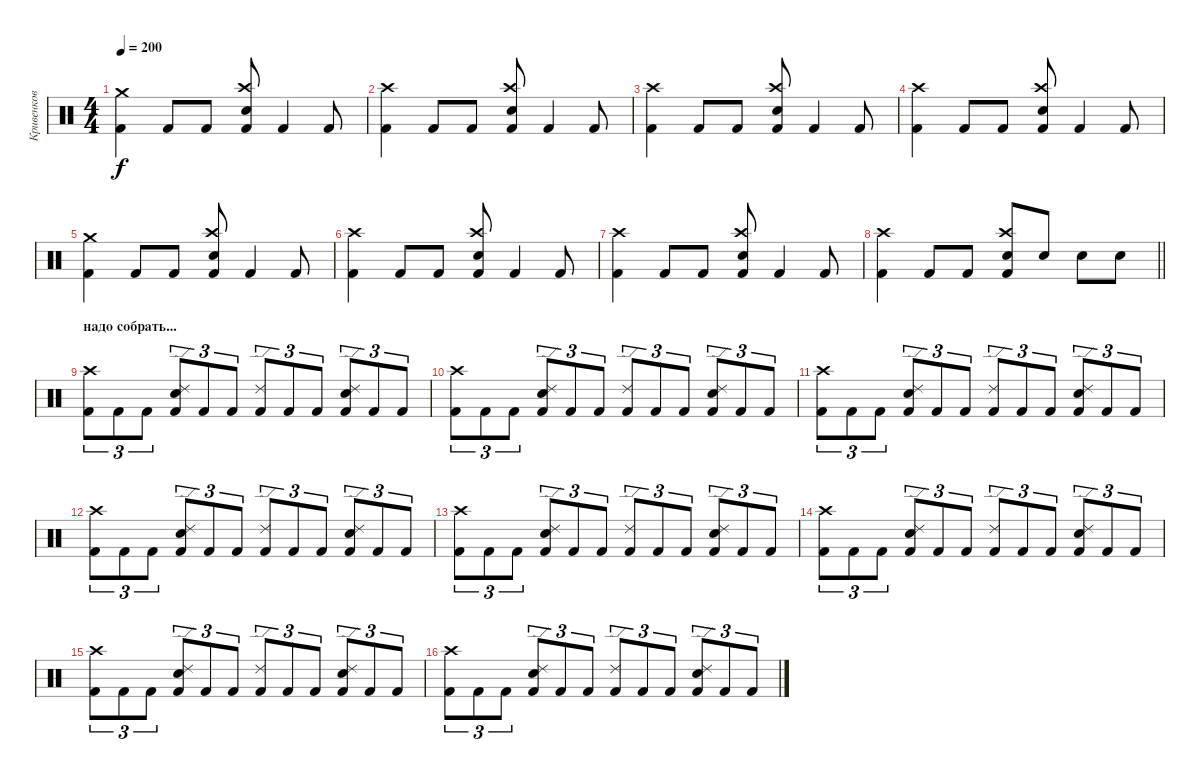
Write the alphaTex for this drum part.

\track ("Кривенков" "Кривенков") {instrument percussion}
\staff {score}
\articulation defaults
\ts (4 4)
\tempo 200
\clef neutral
\ks c
("Crash medium (hit)" "Kick (hit) 2").4{dy f} "Kick (hit) 2".8 "Kick (hit) 2".8 ("Crash high (hit)" "Electric Snare (hit)" "Kick (hit) 2").8 "Kick (hit) 2".4 "Kick (hit) 2".8 |
("Crash high (hit)" "Kick (hit) 2").4 "Kick (hit) 2".8 "Kick (hit) 2".8 ("Crash high (hit)" "Electric Snare (hit)" "Kick (hit) 2").8 "Kick (hit) 2".4 "Kick (hit) 2".8 |
("Crash high (hit)" "Kick (hit) 2").4 "Kick (hit) 2".8 "Kick (hit) 2".8 ("Crash high (hit)" "Electric Snare (hit)" "Kick (hit) 2").8 "Kick (hit) 2".4 "Kick (hit) 2".8 |
("Crash high (hit)" "Kick (hit) 2").4 "Kick (hit) 2".8 "Kick (hit) 2".8 ("Crash high (hit)" "Electric Snare (hit)" "Kick (hit) 2").8 "Kick (hit) 2".4 "Kick (hit) 2".8 |
("Crash medium (hit)" "Kick (hit) 2").4 "Kick (hit) 2".8 "Kick (hit) 2".8 ("Crash high (hit)" "Electric Snare (hit)" "Kick (hit) 2").8 "Kick (hit) 2".4 "Kick (hit) 2".8 |
("Crash high (hit)" "Kick (hit) 2").4 "Kick (hit) 2".8 "Kick (hit) 2".8 ("Crash high (hit)" "Electric Snare (hit)" "Kick (hit) 2").8 "Kick (hit) 2".4 "Kick (hit) 2".8 |
("Crash high (hit)" "Kick (hit) 2").4 "Kick (hit) 2".8 "Kick (hit) 2".8 ("Crash high (hit)" "Electric Snare (hit)" "Kick (hit) 2").8 "Kick (hit) 2".4 "Kick (hit) 2".8 |
\barLineRight lightlight
("Crash high (hit)" "Kick (hit) 2").4 "Kick (hit) 2".8 "Kick (hit) 2".8 ("Crash high (hit)" "Electric Snare (hit)" "Kick (hit) 2").8 "Electric Snare (hit)".8 "Electric Snare (hit)".8 "Electric Snare (hit)".8 |
\section ("" "надо собрать...")
("Crash high (hit)" "Kick (hit) 2").8{tu (3 2)} "Kick (hit) 2".8{tu (3 2)} "Kick (hit) 2".8{tu (3 2)} ("Ride (edge) 2" "Electric Snare (hit)" "Kick (hit) 2").8{tu (3 2)} "Kick (hit) 2".8{tu (3 2)} "Kick (hit) 2".8{tu (3 2)} ("Ride (edge) 2" "Kick (hit) 2").8{tu (3 2)} "Kick (hit) 2".8{tu (3 2)} "Kick (hit) 2".8{tu (3 2)} ("Ride (edge) 2" "Electric Snare (hit)" "Kick (hit) 2").8{tu (3 2)} "Kick (hit) 2".8{tu (3 2)} "Kick (hit) 2".8{tu (3 2)} |
("Crash high (hit)" "Kick (hit) 2").8{tu (3 2)} "Kick (hit) 2".8{tu (3 2)} "Kick (hit) 2".8{tu (3 2)} ("Ride (edge) 2" "Electric Snare (hit)" "Kick (hit) 2").8{tu (3 2)} "Kick (hit) 2".8{tu (3 2)} "Kick (hit) 2".8{tu (3 2)} ("Ride (edge) 2" "Kick (hit) 2").8{tu (3 2)} "Kick (hit) 2".8{tu (3 2)} "Kick (hit) 2".8{tu (3 2)} ("Ride (edge) 2" "Electric Snare (hit)" "Kick (hit) 2").8{tu (3 2)} "Kick (hit) 2".8{tu (3 2)} "Kick (hit) 2".8{tu (3 2)} |
("Crash high (hit)" "Kick (hit) 2").8{tu (3 2)} "Kick (hit) 2".8{tu (3 2)} "Kick (hit) 2".8{tu (3 2)} ("Ride (edge) 2" "Electric Snare (hit)" "Kick (hit) 2").8{tu (3 2)} "Kick (hit) 2".8{tu (3 2)} "Kick (hit) 2".8{tu (3 2)} ("Ride (edge) 2" "Kick (hit) 2").8{tu (3 2)} "Kick (hit) 2".8{tu (3 2)} "Kick (hit) 2".8{tu (3 2)} ("Ride (edge) 2" "Electric Snare (hit)" "Kick (hit) 2").8{tu (3 2)} "Kick (hit) 2".8{tu (3 2)} "Kick (hit) 2".8{tu (3 2)} |
("Crash high (hit)" "Kick (hit) 2").8{tu (3 2)} "Kick (hit) 2".8{tu (3 2)} "Kick (hit) 2".8{tu (3 2)} ("Ride (edge) 2" "Electric Snare (hit)" "Kick (hit) 2").8{tu (3 2)} "Kick (hit) 2".8{tu (3 2)} "Kick (hit) 2".8{tu (3 2)} ("Ride (edge) 2" "Kick (hit) 2").8{tu (3 2)} "Kick (hit) 2".8{tu (3 2)} "Kick (hit) 2".8{tu (3 2)} ("Ride (edge) 2" "Electric Snare (hit)" "Kick (hit) 2").8{tu (3 2)} "Kick (hit) 2".8{tu (3 2)} "Kick (hit) 2".8{tu (3 2)} |
("Crash high (hit)" "Kick (hit) 2").8{tu (3 2)} "Kick (hit) 2".8{tu (3 2)} "Kick (hit) 2".8{tu (3 2)} ("Ride (edge) 2" "Electric Snare (hit)" "Kick (hit) 2").8{tu (3 2)} "Kick (hit) 2".8{tu (3 2)} "Kick (hit) 2".8{tu (3 2)} ("Ride (edge) 2" "Kick (hit) 2").8{tu (3 2)} "Kick (hit) 2".8{tu (3 2)} "Kick (hit) 2".8{tu (3 2)} ("Ride (edge) 2" "Electric Snare (hit)" "Kick (hit) 2").8{tu (3 2)} "Kick (hit) 2".8{tu (3 2)} "Kick (hit) 2".8{tu (3 2)} |
("Crash high (hit)" "Kick (hit) 2").8{tu (3 2)} "Kick (hit) 2".8{tu (3 2)} "Kick (hit) 2".8{tu (3 2)} ("Ride (edge) 2" "Electric Snare (hit)" "Kick (hit) 2").8{tu (3 2)} "Kick (hit) 2".8{tu (3 2)} "Kick (hit) 2".8{tu (3 2)} ("Ride (edge) 2" "Kick (hit) 2").8{tu (3 2)} "Kick (hit) 2".8{tu (3 2)} "Kick (hit) 2".8{tu (3 2)} ("Ride (edge) 2" "Electric Snare (hit)" "Kick (hit) 2").8{tu (3 2)} "Kick (hit) 2".8{tu (3 2)} "Kick (hit) 2".8{tu (3 2)} |
("Crash high (hit)" "Kick (hit) 2").8{tu (3 2)} "Kick (hit) 2".8{tu (3 2)} "Kick (hit) 2".8{tu (3 2)} ("Ride (edge) 2" "Electric Snare (hit)" "Kick (hit) 2").8{tu (3 2)} "Kick (hit) 2".8{tu (3 2)} "Kick (hit) 2".8{tu (3 2)} ("Ride (edge) 2" "Kick (hit) 2").8{tu (3 2)} "Kick (hit) 2".8{tu (3 2)} "Kick (hit) 2".8{tu (3 2)} ("Ride (edge) 2" "Electric Snare (hit)" "Kick (hit) 2").8{tu (3 2)} "Kick (hit) 2".8{tu (3 2)} "Kick (hit) 2".8{tu (3 2)} |
("Crash high (hit)" "Kick (hit) 2").8{tu (3 2)} "Kick (hit) 2".8{tu (3 2)} "Kick (hit) 2".8{tu (3 2)} ("Ride (edge) 2" "Electric Snare (hit)" "Kick (hit) 2").8{tu (3 2)} "Kick (hit) 2".8{tu (3 2)} "Kick (hit) 2".8{tu (3 2)} ("Ride (edge) 2" "Kick (hit) 2").8{tu (3 2)} "Kick (hit) 2".8{tu (3 2)} "Kick (hit) 2".8{tu (3 2)} ("Ride (edge) 2" "Electric Snare (hit)" "Kick (hit) 2").8{tu (3 2)} "Kick (hit) 2".8{tu (3 2)} "Kick (hit) 2".8{tu (3 2)}
